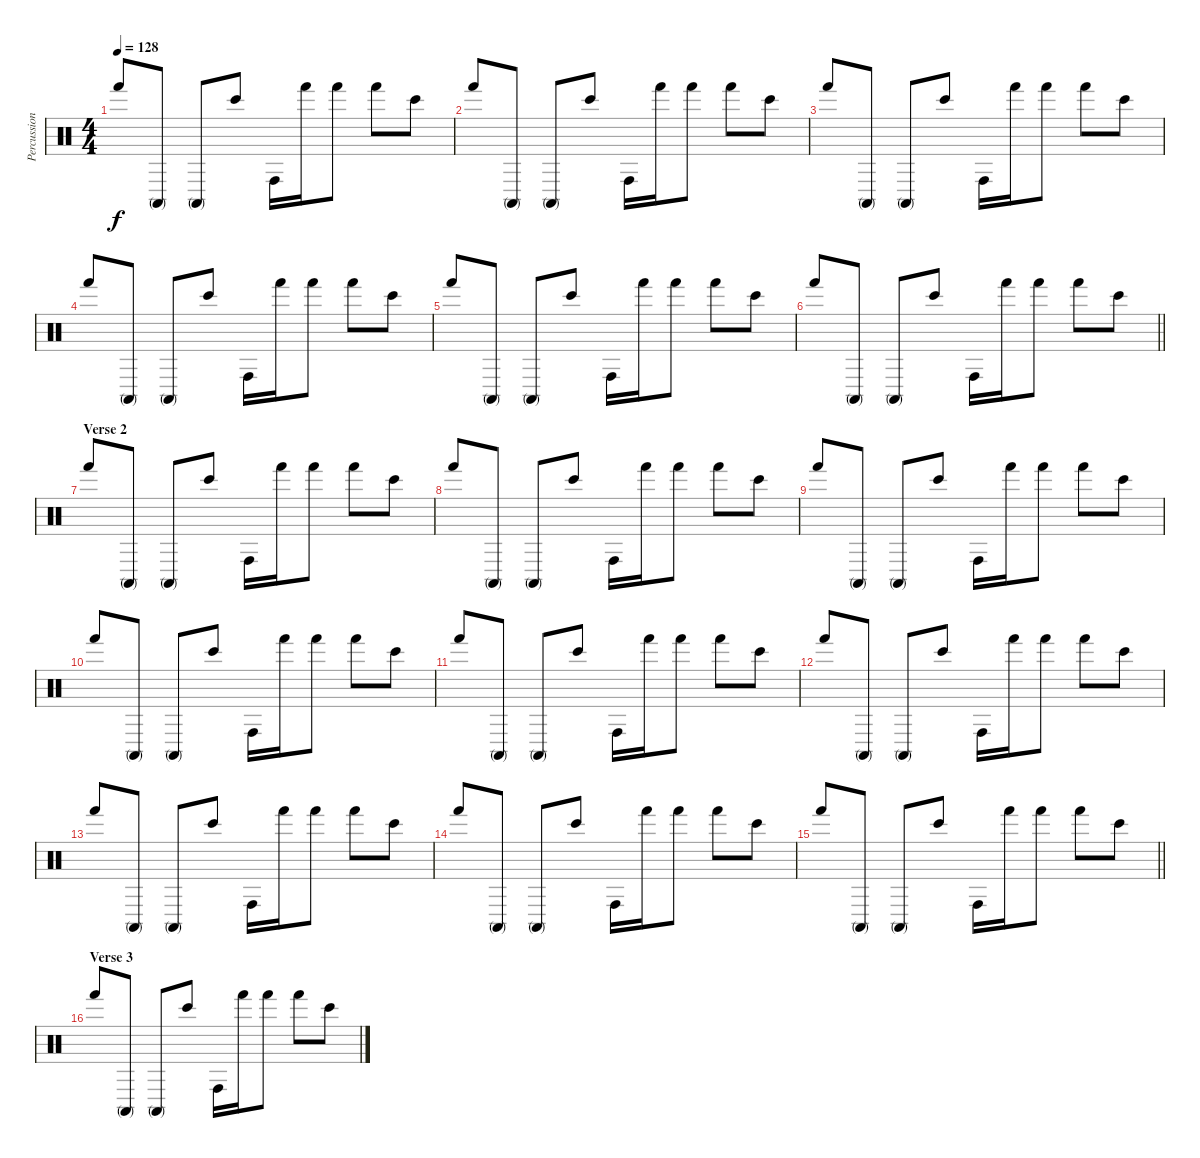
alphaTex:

\track ("Percussion" "Percussion") {instrument percussion}
\staff {score}
\articulation defaults
\ts (4 4)
\tempo 128
\clef neutral
\ks c "Hand (hit)".8{dy f} "Conga high (mute)".8 "Conga high (mute)".8 "Bongo High (hit)".8 "Conga high (hit)".16 "Hand (hit)".16 "Hand (hit)".8 "Hand (hit)".8 "Bongo High (hit)".8
|
"Hand (hit)".8 "Conga high (mute)".8 "Conga high (mute)".8 "Bongo High (hit)".8 "Conga high (hit)".16 "Hand (hit)".16 "Hand (hit)".8 "Hand (hit)".8 "Bongo High (hit)".8 |
"Hand (hit)".8 "Conga high (mute)".8 "Conga high (mute)".8 "Bongo High (hit)".8 "Conga high (hit)".16 "Hand (hit)".16 "Hand (hit)".8 "Hand (hit)".8 "Bongo High (hit)".8 |
"Hand (hit)".8 "Conga high (mute)".8 "Conga high (mute)".8 "Bongo High (hit)".8 "Conga high (hit)".16 "Hand (hit)".16 "Hand (hit)".8 "Hand (hit)".8 "Bongo High (hit)".8 |
"Hand (hit)".8 "Conga high (mute)".8 "Conga high (mute)".8 "Bongo High (hit)".8 "Conga high (hit)".16 "Hand (hit)".16 "Hand (hit)".8 "Hand (hit)".8 "Bongo High (hit)".8 |
\barLineRight lightlight "Hand (hit)".8 "Conga high (mute)".8 "Conga high (mute)".8 "Bongo High (hit)".8 "Conga high (hit)".16 "Hand (hit)".16 "Hand (hit)".8 "Hand (hit)".8 "Bongo High (hit)".8
|
\section ("" "Verse 2")
"Hand (hit)".8 "Conga high (mute)".8 "Conga high (mute)".8 "Bongo High (hit)".8 "Conga high (hit)".16 "Hand (hit)".16 "Hand (hit)".8 "Hand (hit)".8 "Bongo High (hit)".8 |
"Hand (hit)".8 "Conga high (mute)".8 "Conga high (mute)".8 "Bongo High (hit)".8 "Conga high (hit)".16 "Hand (hit)".16 "Hand (hit)".8 "Hand (hit)".8 "Bongo High (hit)".8 |
"Hand (hit)".8 "Conga high (mute)".8 "Conga high (mute)".8 "Bongo High (hit)".8 "Conga high (hit)".16 "Hand (hit)".16 "Hand (hit)".8 "Hand (hit)".8 "Bongo High (hit)".8 |
"Hand (hit)".8 "Conga high (mute)".8 "Conga high (mute)".8 "Bongo High (hit)".8 "Conga high (hit)".16 "Hand (hit)".16 "Hand (hit)".8 "Hand (hit)".8 "Bongo High (hit)".8 |
"Hand (hit)".8 "Conga high (mute)".8 "Conga high (mute)".8 "Bongo High (hit)".8 "Conga high (hit)".16 "Hand (hit)".16 "Hand (hit)".8 "Hand (hit)".8 "Bongo High (hit)".8 |
"Hand (hit)".8 "Conga high (mute)".8 "Conga high (mute)".8 "Bongo High (hit)".8 "Conga high (hit)".16 "Hand (hit)".16 "Hand (hit)".8 "Hand (hit)".8 "Bongo High (hit)".8 |
"Hand (hit)".8 "Conga high (mute)".8 "Conga high (mute)".8 "Bongo High (hit)".8 "Conga high (hit)".16 "Hand (hit)".16 "Hand (hit)".8 "Hand (hit)".8 "Bongo High (hit)".8 |
"Hand (hit)".8 "Conga high (mute)".8 "Conga high (mute)".8 "Bongo High (hit)".8 "Conga high (hit)".16 "Hand (hit)".16 "Hand (hit)".8 "Hand (hit)".8 "Bongo High (hit)".8 |
\barLineRight lightlight "Hand (hit)".8 "Conga high (mute)".8 "Conga high (mute)".8 "Bongo High (hit)".8 "Conga high (hit)".16 "Hand (hit)".16 "Hand (hit)".8 "Hand (hit)".8 "Bongo High (hit)".8
|
\section ("" "Verse 3")
"Hand (hit)".8 "Conga high (mute)".8 "Conga high (mute)".8 "Bongo High (hit)".8 "Conga high (hit)".16 "Hand (hit)".16 "Hand (hit)".8 "Hand (hit)".8 "Bongo High (hit)".8
